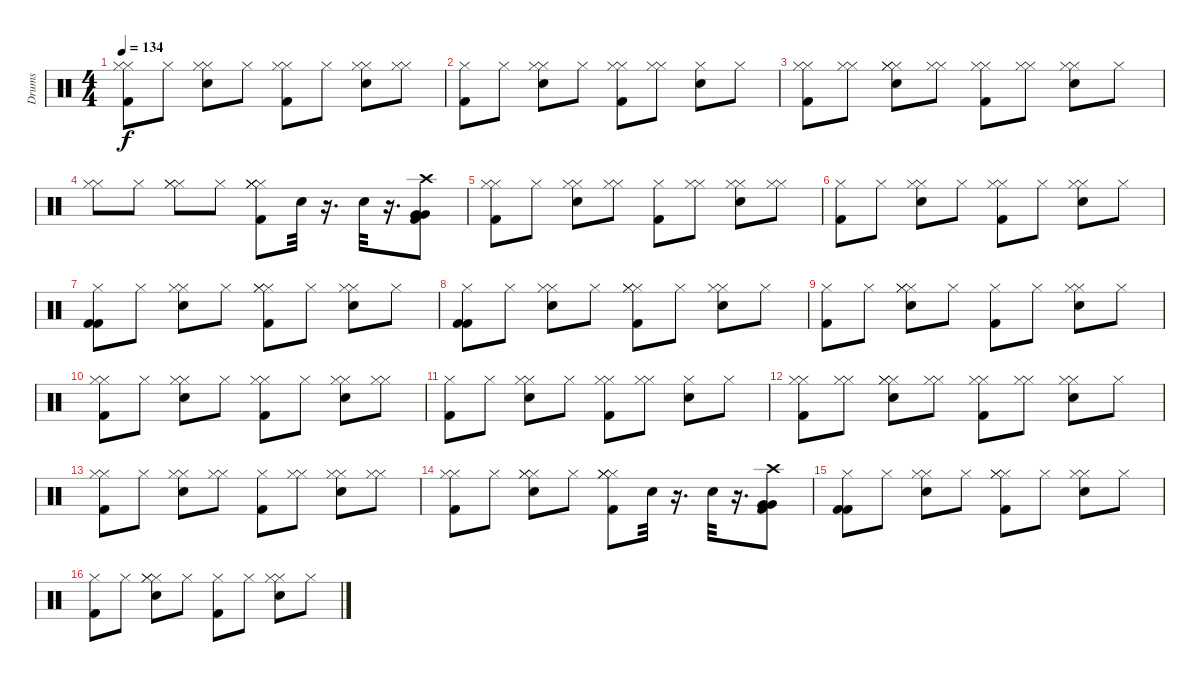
\track ("Drums" "Drums") {instrument percussion}
\staff {score}
\articulation defaults
\ts (4 4)
\tempo 134
\clef neutral
\ks c
("Hi-Hat (closed)" "Hi-Hat (closed)" "Kick (hit) 2").8{dy f} "Hi-Hat (closed)".8 ("Hi-Hat (closed)" "Hi-Hat (closed)" "Electric Snare (hit)").8 "Hi-Hat (closed)".8 ("Hi-Hat (closed)" "Hi-Hat (closed)" "Kick (hit) 2").8 "Hi-Hat (closed)".8 ("Hi-Hat (closed)" "Hi-Hat (closed)" "Electric Snare (hit)").8 ("Hi-Hat (closed)" "Hi-Hat (closed)").8 |
("Hi-Hat (closed)" "Kick (hit) 2").8 "Hi-Hat (closed)".8 ("Hi-Hat (closed)" "Hi-Hat (closed)" "Electric Snare (hit)").8 "Hi-Hat (closed)".8 ("Hi-Hat (closed)" "Hi-Hat (closed)" "Kick (hit) 2").8 ("Hi-Hat (closed)" "Hi-Hat (closed)").8 ("Hi-Hat (closed)" "Electric Snare (hit)").8 "Hi-Hat (closed)".8 |
("Hi-Hat (closed)" "Hi-Hat (closed)" "Kick (hit) 2").8 ("Hi-Hat (closed)" "Hi-Hat (closed)").8 ("Hi-Hat (closed)" "Hi-Hat (closed)" "Hi-Hat (closed)" "Electric Snare (hit)").8 ("Hi-Hat (closed)" "Hi-Hat (closed)").8 ("Hi-Hat (closed)" "Hi-Hat (closed)" "Kick (hit) 2").8 ("Hi-Hat (closed)" "Hi-Hat (closed)").8 ("Hi-Hat (closed)" "Hi-Hat (closed)" "Electric Snare (hit)").8 "Hi-Hat (closed)".8 |
("Hi-Hat (closed)" "Hi-Hat (closed)").8 "Hi-Hat (closed)".8 ("Hi-Hat (closed)" "Hi-Hat (closed)" "Hi-Hat (closed)").8 "Hi-Hat (closed)".8 ("Hi-Hat (closed)" "Hi-Hat (closed)" "Hi-Hat (closed)" "Hi-Hat (closed)" "Kick (hit) 2").8 "Electric Snare (hit)".32 r.16{d} "Electric Snare (hit)".32 r.16{d} ("Very Low Tom (hit)" "Very Low Tom (hit)" "Crash high (hit)" "Kick (hit) 2").8 |
("Hi-Hat (closed)" "Hi-Hat (closed)" "Kick (hit) 2").8 "Hi-Hat (closed)".8 ("Hi-Hat (closed)" "Hi-Hat (closed)" "Electric Snare (hit)").8 ("Hi-Hat (closed)" "Hi-Hat (closed)").8 ("Hi-Hat (closed)" "Kick (hit) 2").8 ("Hi-Hat (closed)" "Hi-Hat (closed)").8 ("Hi-Hat (closed)" "Hi-Hat (closed)" "Electric Snare (hit)").8 ("Hi-Hat (closed)" "Hi-Hat (closed)").8 |
("Hi-Hat (closed)" "Kick (hit) 2").8 "Hi-Hat (closed)".8 ("Hi-Hat (closed)" "Hi-Hat (closed)" "Electric Snare (hit)").8 "Hi-Hat (closed)".8 ("Hi-Hat (closed)" "Hi-Hat (closed)" "Kick (hit) 2").8 "Hi-Hat (closed)".8 ("Hi-Hat (closed)" "Hi-Hat (closed)" "Electric Snare (hit)").8 "Hi-Hat (closed)".8 |
("Hi-Hat (closed)" "Kick (hit) 2" "Kick (hit) 2").8 "Hi-Hat (closed)".8 ("Hi-Hat (closed)" "Hi-Hat (closed)" "Electric Snare (hit)").8 "Hi-Hat (closed)".8 ("Hi-Hat (closed)" "Hi-Hat (closed)" "Hi-Hat (closed)" "Kick (hit) 2").8 "Hi-Hat (closed)".8 ("Hi-Hat (closed)" "Hi-Hat (closed)" "Electric Snare (hit)").8 "Hi-Hat (closed)".8 |
("Hi-Hat (closed)" "Kick (hit) 2" "Kick (hit) 2").8 "Hi-Hat (closed)".8 ("Hi-Hat (closed)" "Hi-Hat (closed)" "Electric Snare (hit)").8 "Hi-Hat (closed)".8 ("Hi-Hat (closed)" "Hi-Hat (closed)" "Hi-Hat (closed)" "Kick (hit) 2").8 "Hi-Hat (closed)".8 ("Hi-Hat (closed)" "Hi-Hat (closed)" "Electric Snare (hit)").8 "Hi-Hat (closed)".8 |
("Hi-Hat (closed)" "Kick (hit) 2").8 "Hi-Hat (closed)".8 ("Hi-Hat (closed)" "Hi-Hat (closed)" "Hi-Hat (closed)" "Electric Snare (hit)").8 "Hi-Hat (closed)".8 ("Hi-Hat (closed)" "Kick (hit) 2").8 "Hi-Hat (closed)".8 ("Hi-Hat (closed)" "Hi-Hat (closed)" "Electric Snare (hit)").8 "Hi-Hat (closed)".8 |
("Hi-Hat (closed)" "Hi-Hat (closed)" "Kick (hit) 2").8 "Hi-Hat (closed)".8 ("Hi-Hat (closed)" "Hi-Hat (closed)" "Electric Snare (hit)").8 "Hi-Hat (closed)".8 ("Hi-Hat (closed)" "Hi-Hat (closed)" "Kick (hit) 2").8 "Hi-Hat (closed)".8 ("Hi-Hat (closed)" "Hi-Hat (closed)" "Electric Snare (hit)").8 ("Hi-Hat (closed)" "Hi-Hat (closed)").8 |
("Hi-Hat (closed)" "Kick (hit) 2").8 "Hi-Hat (closed)".8 ("Hi-Hat (closed)" "Hi-Hat (closed)" "Electric Snare (hit)").8 "Hi-Hat (closed)".8 ("Hi-Hat (closed)" "Hi-Hat (closed)" "Kick (hit) 2").8 ("Hi-Hat (closed)" "Hi-Hat (closed)").8 ("Hi-Hat (closed)" "Electric Snare (hit)").8 "Hi-Hat (closed)".8 |
("Hi-Hat (closed)" "Hi-Hat (closed)" "Kick (hit) 2").8 ("Hi-Hat (closed)" "Hi-Hat (closed)").8 ("Hi-Hat (closed)" "Hi-Hat (closed)" "Hi-Hat (closed)" "Electric Snare (hit)").8 ("Hi-Hat (closed)" "Hi-Hat (closed)").8 ("Hi-Hat (closed)" "Hi-Hat (closed)" "Kick (hit) 2").8 ("Hi-Hat (closed)" "Hi-Hat (closed)").8 ("Hi-Hat (closed)" "Hi-Hat (closed)" "Electric Snare (hit)").8 "Hi-Hat (closed)".8 |
("Hi-Hat (closed)" "Hi-Hat (closed)" "Kick (hit) 2").8 "Hi-Hat (closed)".8 ("Hi-Hat (closed)" "Hi-Hat (closed)" "Electric Snare (hit)").8 ("Hi-Hat (closed)" "Hi-Hat (closed)").8 ("Hi-Hat (closed)" "Kick (hit) 2").8 ("Hi-Hat (closed)" "Hi-Hat (closed)").8 ("Hi-Hat (closed)" "Hi-Hat (closed)" "Electric Snare (hit)").8 ("Hi-Hat (closed)" "Hi-Hat (closed)").8 |
("Hi-Hat (closed)" "Hi-Hat (closed)" "Kick (hit) 2").8 "Hi-Hat (closed)".8 ("Hi-Hat (closed)" "Hi-Hat (closed)" "Hi-Hat (closed)" "Electric Snare (hit)").8 "Hi-Hat (closed)".8 ("Hi-Hat (closed)" "Hi-Hat (closed)" "Hi-Hat (closed)" "Hi-Hat (closed)" "Kick (hit) 2").8 "Electric Snare (hit)".32 r.16{d} "Electric Snare (hit)".32 r.16{d} ("Very Low Tom (hit)" "Very Low Tom (hit)" "Crash high (hit)" "Kick (hit) 2").8 |
("Hi-Hat (closed)" "Kick (hit) 2" "Kick (hit) 2").8 "Hi-Hat (closed)".8 ("Hi-Hat (closed)" "Hi-Hat (closed)" "Electric Snare (hit)").8 "Hi-Hat (closed)".8 ("Hi-Hat (closed)" "Hi-Hat (closed)" "Hi-Hat (closed)" "Kick (hit) 2").8 "Hi-Hat (closed)".8 ("Hi-Hat (closed)" "Hi-Hat (closed)" "Electric Snare (hit)").8 "Hi-Hat (closed)".8 |
("Hi-Hat (closed)" "Kick (hit) 2").8 "Hi-Hat (closed)".8 ("Hi-Hat (closed)" "Hi-Hat (closed)" "Hi-Hat (closed)" "Electric Snare (hit)").8 "Hi-Hat (closed)".8 ("Hi-Hat (closed)" "Kick (hit) 2").8 "Hi-Hat (closed)".8 ("Hi-Hat (closed)" "Hi-Hat (closed)" "Electric Snare (hit)").8 "Hi-Hat (closed)".8
